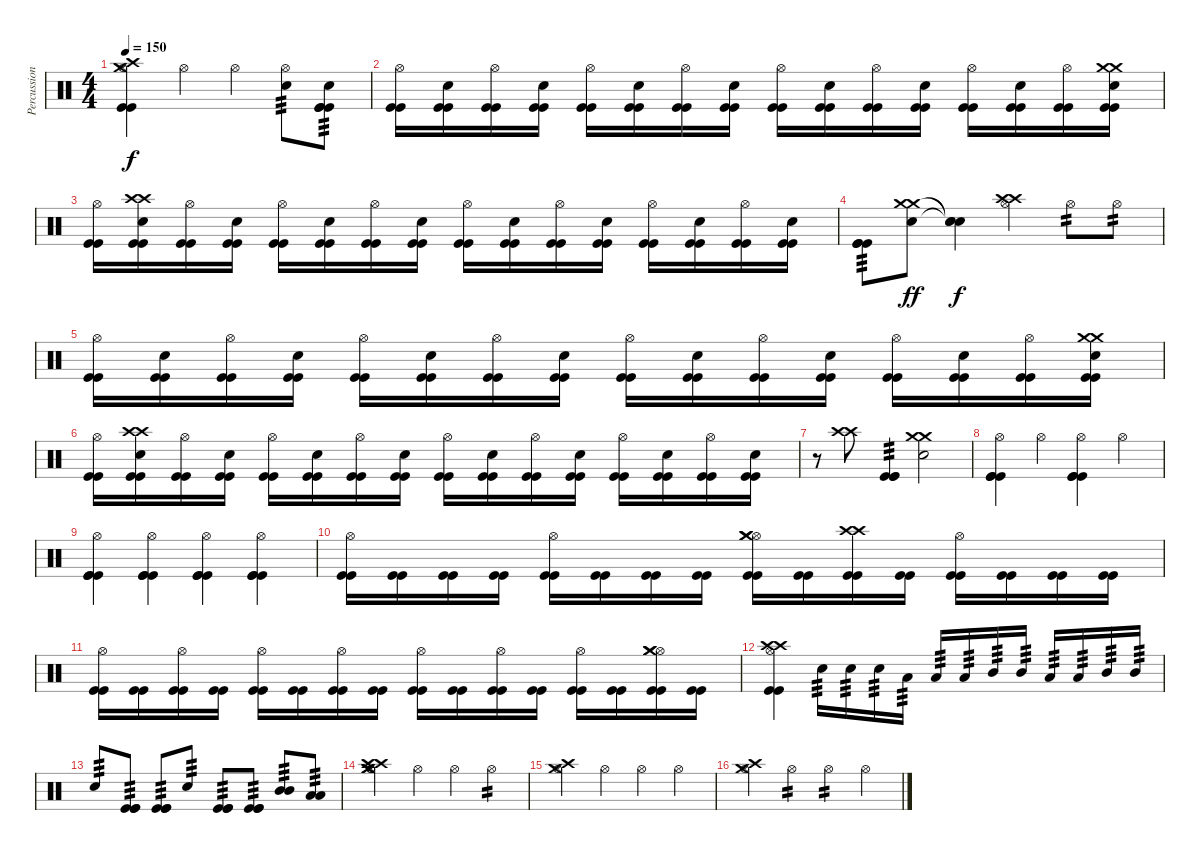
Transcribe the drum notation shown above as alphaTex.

\track ("Percussions" "Percussion") {instrument percussion}
\staff {score}
\articulation defaults
\ts (4 4)
\tempo 150
\clef neutral
\ks c
("Kick (hit)" "Kick (hit)" "Hi-Hat (open)" "Crash medium (hit)" "Crash high (hit)").4{dy f} "Hi-Hat (open)".4 "Hi-Hat (open)".4 ("Electric Snare (hit)" "Hi-Hat (open)").8{tp 3} ("Kick (hit)" "Kick (hit)" "Kick (hit)" "Electric Snare (hit)").8{tp 3} |
("Kick (hit)" "Kick (hit)" "Hi-Hat (open)").16 ("Kick (hit)" "Kick (hit)" "Electric Snare (hit)").16 ("Kick (hit)" "Kick (hit)" "Hi-Hat (open)").16 ("Kick (hit)" "Kick (hit)" "Electric Snare (hit)").16 ("Kick (hit)" "Kick (hit)" "Hi-Hat (open)").16 ("Kick (hit)" "Kick (hit)" "Electric Snare (hit)").16 ("Kick (hit)" "Kick (hit)" "Hi-Hat (open)").16 ("Kick (hit)" "Kick (hit)" "Electric Snare (hit)").16 ("Kick (hit)" "Kick (hit)" "Hi-Hat (open)").16 ("Kick (hit)" "Kick (hit)" "Electric Snare (hit)").16 ("Kick (hit)" "Kick (hit)" "Hi-Hat (open)").16 ("Kick (hit)" "Kick (hit)" "Electric Snare (hit)").16 ("Kick (hit)" "Kick (hit)" "Hi-Hat (open)").16 ("Kick (hit)" "Kick (hit)" "Electric Snare (hit)").16 ("Kick (hit)" "Kick (hit)" "Hi-Hat (open)").16 ("Kick (hit)" "Kick (hit)" "Electric Snare (hit)" "Crash medium (hit)" "Crash medium (hit)").16 |
("Kick (hit)" "Kick (hit)" "Hi-Hat (open)").16 ("Kick (hit)" "Kick (hit)" "Electric Snare (hit)" "Crash high (hit)" "Crash high (hit)").16 ("Kick (hit)" "Kick (hit)" "Hi-Hat (open)").16 ("Kick (hit)" "Kick (hit)" "Electric Snare (hit)").16 ("Kick (hit)" "Kick (hit)" "Hi-Hat (open)").16 ("Kick (hit)" "Kick (hit)" "Electric Snare (hit)").16 ("Kick (hit)" "Kick (hit)" "Hi-Hat (open)").16 ("Kick (hit)" "Kick (hit)" "Electric Snare (hit)").16 ("Kick (hit)" "Kick (hit)" "Hi-Hat (open)").16 ("Kick (hit)" "Kick (hit)" "Electric Snare (hit)").16 ("Kick (hit)" "Kick (hit)" "Hi-Hat (open)").16 ("Kick (hit)" "Kick (hit)" "Electric Snare (hit)").16 ("Kick (hit)" "Kick (hit)" "Hi-Hat (open)").16 ("Kick (hit)" "Kick (hit)" "Electric Snare (hit)").16 ("Kick (hit)" "Kick (hit)" "Hi-Hat (open)").16 ("Kick (hit)" "Kick (hit)" "Electric Snare (hit)").16 |
("Kick (hit)" "Kick (hit)" "Kick (hit)").8{tp 3} ("Electric Snare (hit)" "Crash medium (hit)" "Crash medium (hit)").8{dy ff} ("Snare (hit)"{t} "Snare (hit)"{t} "Snare (hit)"{t}).4{dy f} ("Hi-Hat (open)" "Crash high (hit)" "Crash high (hit)").4 "Hi-Hat (open)".8{tp 2} "Hi-Hat (open)".8{tp 2} |
("Kick (hit)" "Kick (hit)" "Hi-Hat (open)").16 ("Kick (hit)" "Kick (hit)" "Electric Snare (hit)").16 ("Kick (hit)" "Kick (hit)" "Hi-Hat (open)").16 ("Kick (hit)" "Kick (hit)" "Electric Snare (hit)").16 ("Kick (hit)" "Kick (hit)" "Hi-Hat (open)").16 ("Kick (hit)" "Kick (hit)" "Electric Snare (hit)").16 ("Kick (hit)" "Kick (hit)" "Hi-Hat (open)").16 ("Kick (hit)" "Kick (hit)" "Electric Snare (hit)").16 ("Kick (hit)" "Kick (hit)" "Hi-Hat (open)").16 ("Kick (hit)" "Kick (hit)" "Electric Snare (hit)").16 ("Kick (hit)" "Kick (hit)" "Hi-Hat (open)").16 ("Kick (hit)" "Kick (hit)" "Electric Snare (hit)").16 ("Kick (hit)" "Kick (hit)" "Hi-Hat (open)").16 ("Kick (hit)" "Kick (hit)" "Electric Snare (hit)").16 ("Kick (hit)" "Kick (hit)" "Hi-Hat (open)").16 ("Kick (hit)" "Kick (hit)" "Electric Snare (hit)" "Crash medium (hit)" "Crash medium (hit)").16 |
("Kick (hit)" "Kick (hit)" "Hi-Hat (open)").16 ("Kick (hit)" "Kick (hit)" "Electric Snare (hit)" "Crash high (hit)" "Crash high (hit)").16 ("Kick (hit)" "Kick (hit)" "Hi-Hat (open)").16 ("Kick (hit)" "Kick (hit)" "Electric Snare (hit)").16 ("Kick (hit)" "Kick (hit)" "Hi-Hat (open)").16 ("Kick (hit)" "Kick (hit)" "Electric Snare (hit)").16 ("Kick (hit)" "Kick (hit)" "Hi-Hat (open)").16 ("Kick (hit)" "Kick (hit)" "Electric Snare (hit)").16 ("Kick (hit)" "Kick (hit)" "Hi-Hat (open)").16 ("Kick (hit)" "Kick (hit)" "Electric Snare (hit)").16 ("Kick (hit)" "Kick (hit)" "Hi-Hat (open)").16 ("Kick (hit)" "Kick (hit)" "Electric Snare (hit)").16 ("Kick (hit)" "Kick (hit)" "Hi-Hat (open)").16 ("Kick (hit)" "Kick (hit)" "Electric Snare (hit)").16 ("Kick (hit)" "Kick (hit)" "Hi-Hat (open)").16 ("Kick (hit)" "Kick (hit)" "Electric Snare (hit)").16 |
r.8 ("Crash high (hit)" "Crash high (hit)").8 ("Kick (hit)" "Kick (hit)" "Kick (hit)").4{tp 3} ("Electric Snare (hit)" "Crash medium (hit)" "Crash medium (hit)").2 |
("Kick (hit)" "Kick (hit)" "Kick (hit)" "Hi-Hat (open)").4 "Hi-Hat (open)".4 ("Kick (hit)" "Kick (hit)" "Kick (hit)" "Hi-Hat (open)").4 "Hi-Hat (open)".4 |
("Kick (hit)" "Kick (hit)" "Kick (hit)" "Hi-Hat (open)").4 ("Kick (hit)" "Kick (hit)" "Kick (hit)" "Hi-Hat (open)").4 ("Kick (hit)" "Kick (hit)" "Kick (hit)" "Hi-Hat (open)").4 ("Kick (hit)" "Kick (hit)" "Kick (hit)" "Hi-Hat (open)").4 |
("Kick (hit)" "Kick (hit)" "Hi-Hat (open)").16 ("Kick (hit)" "Kick (hit)").16 ("Kick (hit)" "Kick (hit)").16 ("Kick (hit)" "Kick (hit)").16 ("Kick (hit)" "Kick (hit)" "Hi-Hat (open)").16 ("Kick (hit)" "Kick (hit)").16 ("Kick (hit)" "Kick (hit)").16 ("Kick (hit)" "Kick (hit)").16 ("Kick (hit)" "Kick (hit)" "Hi-Hat (open)" "Crash medium (hit)" "Crash medium (hit)").16 ("Kick (hit)" "Kick (hit)").16 ("Kick (hit)" "Kick (hit)" "Crash high (hit)" "Crash high (hit)").16 ("Kick (hit)" "Kick (hit)").16 ("Kick (hit)" "Kick (hit)" "Hi-Hat (open)").16 ("Kick (hit)" "Kick (hit)").16 ("Kick (hit)" "Kick (hit)").16 ("Kick (hit)" "Kick (hit)").16 |
("Kick (hit)" "Kick (hit)" "Hi-Hat (open)").16 ("Kick (hit)" "Kick (hit)").16 ("Kick (hit)" "Kick (hit)" "Hi-Hat (open)").16 ("Kick (hit)" "Kick (hit)").16 ("Kick (hit)" "Kick (hit)" "Hi-Hat (open)").16 ("Kick (hit)" "Kick (hit)").16 ("Kick (hit)" "Kick (hit)" "Hi-Hat (open)").16 ("Kick (hit)" "Kick (hit)").16 ("Kick (hit)" "Kick (hit)" "Hi-Hat (open)").16 ("Kick (hit)" "Kick (hit)").16 ("Kick (hit)" "Kick (hit)" "Hi-Hat (open)").16 ("Kick (hit)" "Kick (hit)").16 ("Kick (hit)" "Kick (hit)" "Hi-Hat (open)").16 ("Kick (hit)" "Kick (hit)").16 ("Kick (hit)" "Kick (hit)" "Hi-Hat (open)" "Crash medium (hit)" "Crash medium (hit)").16 ("Kick (hit)" "Kick (hit)").16 |
("Kick (hit)" "Kick (hit)" "Hi-Hat (open)" "Crash high (hit)" "Crash high (hit)").4 "Electric Snare (hit)".16{tp 3} "Electric Snare (hit)".16{tp 3} "Electric Snare (hit)".16{tp 3} "Low Tom (hit)".16{tp 3} "Low Tom (hit)".16{tp 3} "Low Tom (hit)".16{tp 3} "Mid Tom (hit)".16{tp 3} "Mid Tom (hit)".16{tp 3} "Low Tom (hit)".16{tp 3} "Low Tom (hit)".16{tp 3} "Mid Tom (hit)".16{tp 3} "Mid Tom (hit)".16{tp 3} |
"Electric Snare (hit)".8{tp 3} ("Kick (hit)" "Kick (hit)" "Kick (hit)").8{tp 3} ("Kick (hit)" "Kick (hit)" "Kick (hit)").8{tp 3} "Electric Snare (hit)".8{tp 3} ("Kick (hit)" "Kick (hit)" "Kick (hit)").8{tp 3} ("Kick (hit)" "Kick (hit)" "Kick (hit)").8{tp 3} ("Mid Tom (hit)" "Mid Tom (hit)").8{tp 3} ("Low Tom (hit)" "Low Tom (hit)").8{tp 3} |
("Hi-Hat (open)" "Hi-Hat (open)" "Crash high (hit)" "Crash high (hit)" "Crash medium (hit)" "Crash medium (hit)").4 "Hi-Hat (open)".4 "Hi-Hat (open)".4 "Hi-Hat (open)".4{tp 2} |
("Hi-Hat (open)" "Crash medium (hit)" "Crash high (hit)").4 "Hi-Hat (open)".4 "Hi-Hat (open)".4 "Hi-Hat (open)".4 |
("Hi-Hat (open)" "Crash medium (hit)" "Crash high (hit)").4 "Hi-Hat (open)".4{tp 2} "Hi-Hat (open)".4{tp 2} "Hi-Hat (open)".4
